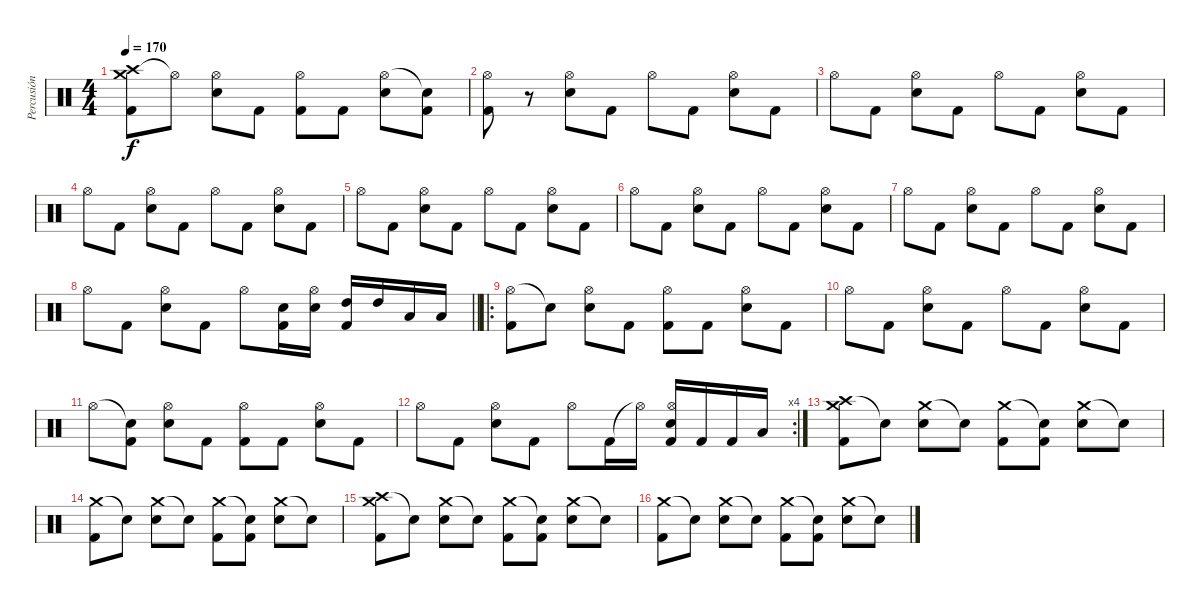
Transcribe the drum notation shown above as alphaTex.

\track ("Percusión" "Percusión") {instrument percussion}
\staff {score}
\articulation defaults
\ts (4 4)
\tempo 170
\clef neutral
\ks c
("Crash high (hit)" "Crash medium (hit)" "Kick (hit) 2").8{dy f} "Hi-Hat (open)"{t}.8 ("Hi-Hat (open)" "Electric Snare (hit)").8 "Kick (hit) 2".8 ("Hi-Hat (open)" "Kick (hit) 2").8 "Kick (hit) 2".8 ("Hi-Hat (open)" "Electric Snare (hit)").8 ("Snare (hit)"{t} "Kick (hit) 2").8 |
("Hi-Hat (open)" "Kick (hit) 2").8 r.8 ("Hi-Hat (open)" "Electric Snare (hit)").8 "Kick (hit) 2".8 "Hi-Hat (open)".8 "Kick (hit) 2".8 ("Hi-Hat (open)" "Electric Snare (hit)").8 "Kick (hit) 2".8 |
"Hi-Hat (open)".8 "Kick (hit) 2".8 ("Hi-Hat (open)" "Electric Snare (hit)").8 "Kick (hit) 2".8 "Hi-Hat (open)".8 "Kick (hit) 2".8 ("Hi-Hat (open)" "Electric Snare (hit)").8 "Kick (hit) 2".8 |
"Hi-Hat (open)".8 "Kick (hit) 2".8 ("Hi-Hat (open)" "Electric Snare (hit)").8 "Kick (hit) 2".8 "Hi-Hat (open)".8 "Kick (hit) 2".8 ("Hi-Hat (open)" "Electric Snare (hit)").8 "Kick (hit) 2".8 |
"Hi-Hat (open)".8 "Kick (hit) 2".8 ("Hi-Hat (open)" "Electric Snare (hit)").8 "Kick (hit) 2".8 "Hi-Hat (open)".8 "Kick (hit) 2".8 ("Hi-Hat (open)" "Electric Snare (hit)").8 "Kick (hit) 2".8 |
"Hi-Hat (open)".8 "Kick (hit) 2".8 ("Hi-Hat (open)" "Electric Snare (hit)").8 "Kick (hit) 2".8 "Hi-Hat (open)".8 "Kick (hit) 2".8 ("Hi-Hat (open)" "Electric Snare (hit)").8 "Kick (hit) 2".8 |
"Hi-Hat (open)".8 "Kick (hit) 2".8 ("Hi-Hat (open)" "Electric Snare (hit)").8 "Kick (hit) 2".8 "Hi-Hat (open)".8 "Kick (hit) 2".8 ("Hi-Hat (open)" "Electric Snare (hit)").8 "Kick (hit) 2".8 |
\barLineRight lightlight "Hi-Hat (open)".8 "Kick (hit) 2".8
("Hi-Hat (open)" "Electric Snare (hit)").8 "Kick (hit) 2".8 "Hi-Hat (open)".8 ("Electric Snare (hit)" "Kick (hit) 2").16 ("Hi-Hat (open)" "Electric Snare (hit)").16 ("High Tom (hit)" "Kick (hit) 2").16 "High Tom (hit)".16 "Low Tom (hit)".16 "Low Tom (hit)".16 |
\ro
("Hi-Hat (open)" "Kick (hit) 2").8 "Snare (hit)"{t}.8 ("Hi-Hat (open)" "Electric Snare (hit)").8 "Kick (hit) 2".8 ("Hi-Hat (open)" "Kick (hit) 2").8 "Kick (hit) 2".8 ("Hi-Hat (open)" "Electric Snare (hit)").8 "Kick (hit) 2".8 |
"Hi-Hat (open)".8 "Kick (hit) 2".8 ("Hi-Hat (open)" "Electric Snare (hit)").8 "Kick (hit) 2".8 "Hi-Hat (open)".8 "Kick (hit) 2".8 ("Hi-Hat (open)" "Electric Snare (hit)").8 "Kick (hit) 2".8 |
"Hi-Hat (open)".8 ("Snare (hit)"{t} "Kick (hit) 2").8 ("Hi-Hat (open)" "Electric Snare (hit)").8 "Kick (hit) 2".8 ("Hi-Hat (open)" "Kick (hit) 2").8 "Kick (hit) 2".8 ("Hi-Hat (open)" "Electric Snare (hit)").8 "Kick (hit) 2".8 |
\rc 4 "Hi-Hat (open)".8 "Kick (hit) 2".8
("Hi-Hat (open)" "Electric Snare (hit)").8 "Kick (hit) 2".8 "Hi-Hat (open)".8 "Kick (hit) 2".16 "Hi-Hat (open)"{t}.16 ("Hi-Hat (open)" "Electric Snare (hit)" "Kick (hit) 2").16 "Kick (hit) 2".16 "Kick (hit) 2".16 "Low Floor Tom (hit)".16 |
("Crash high (hit)" "Crash medium (hit)" "Kick (hit) 2").8 "Snare (hit)"{t}.8 ("Crash medium (hit)" "Snare (hit) 2").8 "Snare (hit)"{t}.8 ("Crash medium (hit)" "Kick (hit) 2").8 ("Snare (hit)"{t} "Kick (hit) 2").8 ("Crash medium (hit)" "Electric Snare (hit)").8 "Snare (hit)"{t}.8 |
("Crash medium (hit)" "Kick (hit) 2").8 "Snare (hit)"{t}.8 ("Crash medium (hit)" "Electric Snare (hit)").8 "Snare (hit)"{t}.8 ("Crash medium (hit)" "Kick (hit) 2").8 ("Snare (hit)"{t} "Kick (hit) 2").8 ("Crash medium (hit)" "Electric Snare (hit)").8 "Snare (hit)"{t}.8 |
("Crash high (hit)" "Crash medium (hit)" "Kick (hit) 2").8 "Snare (hit)"{t}.8 ("Crash medium (hit)" "Electric Snare (hit)").8 "Snare (hit)"{t}.8 ("Crash medium (hit)" "Kick (hit) 2").8 ("Snare (hit)"{t} "Kick (hit) 2").8 ("Crash medium (hit)" "Electric Snare (hit)").8 "Snare (hit)"{t}.8 |
("Crash medium (hit)" "Kick (hit) 2").8 "Snare (hit)"{t}.8 ("Crash medium (hit)" "Electric Snare (hit)").8 "Snare (hit)"{t}.8 ("Crash medium (hit)" "Kick (hit) 2").8 ("Snare (hit)"{t} "Kick (hit) 2").8 ("Crash medium (hit)" "Electric Snare (hit)").8 "Snare (hit)"{t}.8
